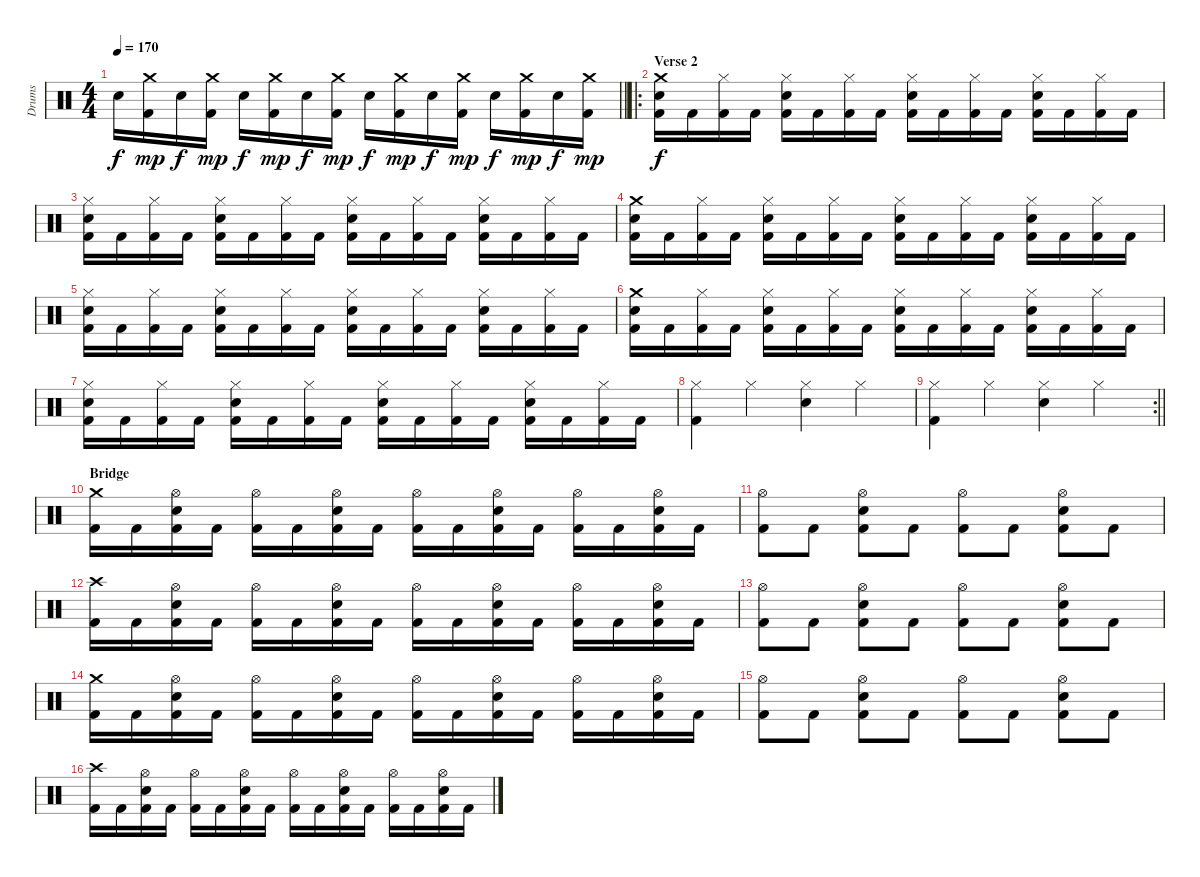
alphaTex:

\track ("Drums" "Drums") {instrument percussion}
\staff {score}
\articulation defaults
\ts (4 4)
\tempo 170
\clef neutral
\barLineRight lightlight
\ks c "Snare (hit) 2".16{dy f}
("Kick (hit) 2" "Crash medium (hit)").16{dy mp} "Snare (hit) 2".16{dy f} ("Kick (hit) 2" "Crash medium (hit)").16{dy mp} "Snare (hit) 2".16{dy f} ("Kick (hit) 2" "Crash medium (hit)").16{dy mp} "Snare (hit) 2".16{dy f} ("Kick (hit) 2" "Crash medium (hit)").16{dy mp} "Snare (hit) 2".16{dy f} ("Kick (hit) 2" "Crash medium (hit)").16{dy mp} "Snare (hit) 2".16{dy f} ("Kick (hit) 2" "Crash medium (hit)").16{dy mp} "Snare (hit) 2".16{dy f} ("Kick (hit) 2" "Crash medium (hit)").16{dy mp} "Snare (hit) 2".16{dy f} ("Kick (hit) 2" "Crash medium (hit)").16{dy mp} |
\ro
\section ("" "Verse 2")
("Kick (hit) 2" "Snare (hit) 2" "Crash medium (hit)").16{dy f} "Kick (hit) 2".16 ("Kick (hit) 2" "Hi-Hat (closed)").16 "Kick (hit) 2".16 ("Kick (hit) 2" "Snare (hit) 2" "Hi-Hat (closed)").16 "Kick (hit) 2".16 ("Kick (hit) 2" "Hi-Hat (closed)").16 "Kick (hit) 2".16 ("Kick (hit) 2" "Snare (hit) 2" "Hi-Hat (closed)").16 "Kick (hit) 2".16 ("Kick (hit) 2" "Hi-Hat (closed)").16 "Kick (hit) 2".16 ("Kick (hit) 2" "Snare (hit) 2" "Hi-Hat (closed)").16 "Kick (hit) 2".16 ("Kick (hit) 2" "Hi-Hat (closed)").16 "Kick (hit) 2".16 |
("Kick (hit) 2" "Snare (hit) 2" "Hi-Hat (closed)").16 "Kick (hit) 2".16 ("Kick (hit) 2" "Hi-Hat (closed)").16 "Kick (hit) 2".16 ("Kick (hit) 2" "Snare (hit) 2" "Hi-Hat (closed)").16 "Kick (hit) 2".16 ("Kick (hit) 2" "Hi-Hat (closed)").16 "Kick (hit) 2".16 ("Kick (hit) 2" "Snare (hit) 2" "Hi-Hat (closed)").16 "Kick (hit) 2".16 ("Kick (hit) 2" "Hi-Hat (closed)").16 "Kick (hit) 2".16 ("Kick (hit) 2" "Snare (hit) 2" "Hi-Hat (closed)").16 "Kick (hit) 2".16 ("Kick (hit) 2" "Hi-Hat (closed)").16 "Kick (hit) 2".16 |
("Kick (hit) 2" "Snare (hit) 2" "Crash medium (hit)").16 "Kick (hit) 2".16 ("Kick (hit) 2" "Hi-Hat (closed)").16 "Kick (hit) 2".16 ("Kick (hit) 2" "Snare (hit) 2" "Hi-Hat (closed)").16 "Kick (hit) 2".16 ("Kick (hit) 2" "Hi-Hat (closed)").16 "Kick (hit) 2".16 ("Kick (hit) 2" "Snare (hit) 2" "Hi-Hat (closed)").16 "Kick (hit) 2".16 ("Kick (hit) 2" "Hi-Hat (closed)").16 "Kick (hit) 2".16 ("Kick (hit) 2" "Snare (hit) 2" "Hi-Hat (closed)").16 "Kick (hit) 2".16 ("Kick (hit) 2" "Hi-Hat (closed)").16 "Kick (hit) 2".16 |
("Kick (hit) 2" "Snare (hit) 2" "Hi-Hat (closed)").16 "Kick (hit) 2".16 ("Kick (hit) 2" "Hi-Hat (closed)").16 "Kick (hit) 2".16 ("Kick (hit) 2" "Snare (hit) 2" "Hi-Hat (closed)").16 "Kick (hit) 2".16 ("Kick (hit) 2" "Hi-Hat (closed)").16 "Kick (hit) 2".16 ("Kick (hit) 2" "Snare (hit) 2" "Hi-Hat (closed)").16 "Kick (hit) 2".16 ("Kick (hit) 2" "Hi-Hat (closed)").16 "Kick (hit) 2".16 ("Kick (hit) 2" "Snare (hit) 2" "Hi-Hat (closed)").16 "Kick (hit) 2".16 ("Kick (hit) 2" "Hi-Hat (closed)").16 "Kick (hit) 2".16 |
("Kick (hit) 2" "Snare (hit) 2" "Crash medium (hit)").16 "Kick (hit) 2".16 ("Kick (hit) 2" "Hi-Hat (closed)").16 "Kick (hit) 2".16 ("Kick (hit) 2" "Snare (hit) 2" "Hi-Hat (closed)").16 "Kick (hit) 2".16 ("Kick (hit) 2" "Hi-Hat (closed)").16 "Kick (hit) 2".16 ("Kick (hit) 2" "Snare (hit) 2" "Hi-Hat (closed)").16 "Kick (hit) 2".16 ("Kick (hit) 2" "Hi-Hat (closed)").16 "Kick (hit) 2".16 ("Kick (hit) 2" "Snare (hit) 2" "Hi-Hat (closed)").16 "Kick (hit) 2".16 ("Kick (hit) 2" "Hi-Hat (closed)").16 "Kick (hit) 2".16 |
("Kick (hit) 2" "Snare (hit) 2" "Hi-Hat (closed)").16 "Kick (hit) 2".16 ("Kick (hit) 2" "Hi-Hat (closed)").16 "Kick (hit) 2".16 ("Kick (hit) 2" "Snare (hit) 2" "Hi-Hat (closed)").16 "Kick (hit) 2".16 ("Kick (hit) 2" "Hi-Hat (closed)").16 "Kick (hit) 2".16 ("Kick (hit) 2" "Snare (hit) 2" "Hi-Hat (closed)").16 "Kick (hit) 2".16 ("Kick (hit) 2" "Hi-Hat (closed)").16 "Kick (hit) 2".16 ("Kick (hit) 2" "Snare (hit) 2" "Hi-Hat (closed)").16 "Kick (hit) 2".16 ("Kick (hit) 2" "Hi-Hat (closed)").16 "Kick (hit) 2".16 |
("Kick (hit) 2" "Hi-Hat (closed)").4 "Hi-Hat (closed)".4 ("Snare (hit) 2" "Hi-Hat (closed)").4 "Hi-Hat (closed)".4 |
\rc 2
\barLineRight lightlight
("Kick (hit) 2" "Hi-Hat (closed)").4 "Hi-Hat (closed)".4 ("Snare (hit) 2" "Hi-Hat (closed)").4 "Hi-Hat (closed)".4 |
\section ("" "Bridge")
("Kick (hit) 2" "Crash medium (hit)").16 "Kick (hit) 2".16 ("Kick (hit) 2" "Snare (hit) 2" "Hi-Hat (open)").16 "Kick (hit) 2".16 ("Kick (hit) 2" "Hi-Hat (open)").16 "Kick (hit) 2".16 ("Kick (hit) 2" "Snare (hit) 2" "Hi-Hat (open)").16 "Kick (hit) 2".16 ("Kick (hit) 2" "Hi-Hat (open)").16 "Kick (hit) 2".16 ("Kick (hit) 2" "Snare (hit) 2" "Hi-Hat (open)").16 "Kick (hit) 2".16 ("Kick (hit) 2" "Hi-Hat (open)").16 "Kick (hit) 2".16 ("Kick (hit) 2" "Snare (hit) 2" "Hi-Hat (open)").16 "Kick (hit) 2".16 |
("Kick (hit) 2" "Hi-Hat (open)").8 "Kick (hit) 2".8 ("Kick (hit) 2" "Snare (hit) 2" "Hi-Hat (open)").8 "Kick (hit) 2".8 ("Kick (hit) 2" "Hi-Hat (open)").8 "Kick (hit) 2".8 ("Kick (hit) 2" "Snare (hit) 2" "Hi-Hat (open)").8 "Kick (hit) 2".8 |
("Kick (hit) 2" "Crash high (hit)").16 "Kick (hit) 2".16 ("Kick (hit) 2" "Snare (hit) 2" "Hi-Hat (open)").16 "Kick (hit) 2".16 ("Kick (hit) 2" "Hi-Hat (open)").16 "Kick (hit) 2".16 ("Kick (hit) 2" "Snare (hit) 2" "Hi-Hat (open)").16 "Kick (hit) 2".16 ("Kick (hit) 2" "Hi-Hat (open)").16 "Kick (hit) 2".16 ("Kick (hit) 2" "Snare (hit) 2" "Hi-Hat (open)").16 "Kick (hit) 2".16 ("Kick (hit) 2" "Hi-Hat (open)").16 "Kick (hit) 2".16 ("Kick (hit) 2" "Snare (hit) 2" "Hi-Hat (open)").16 "Kick (hit) 2".16 |
("Kick (hit) 2" "Hi-Hat (open)").8 "Kick (hit) 2".8 ("Kick (hit) 2" "Snare (hit) 2" "Hi-Hat (open)").8 "Kick (hit) 2".8 ("Kick (hit) 2" "Hi-Hat (open)").8 "Kick (hit) 2".8 ("Kick (hit) 2" "Snare (hit) 2" "Hi-Hat (open)").8 "Kick (hit) 2".8 |
("Kick (hit) 2" "Crash medium (hit)").16 "Kick (hit) 2".16 ("Kick (hit) 2" "Snare (hit) 2" "Hi-Hat (open)").16 "Kick (hit) 2".16 ("Kick (hit) 2" "Hi-Hat (open)").16 "Kick (hit) 2".16 ("Kick (hit) 2" "Snare (hit) 2" "Hi-Hat (open)").16 "Kick (hit) 2".16 ("Kick (hit) 2" "Hi-Hat (open)").16 "Kick (hit) 2".16 ("Kick (hit) 2" "Snare (hit) 2" "Hi-Hat (open)").16 "Kick (hit) 2".16 ("Kick (hit) 2" "Hi-Hat (open)").16 "Kick (hit) 2".16 ("Kick (hit) 2" "Snare (hit) 2" "Hi-Hat (open)").16 "Kick (hit) 2".16 |
("Kick (hit) 2" "Hi-Hat (open)").8 "Kick (hit) 2".8 ("Kick (hit) 2" "Snare (hit) 2" "Hi-Hat (open)").8 "Kick (hit) 2".8 ("Kick (hit) 2" "Hi-Hat (open)").8 "Kick (hit) 2".8 ("Kick (hit) 2" "Snare (hit) 2" "Hi-Hat (open)").8 "Kick (hit) 2".8 |
("Kick (hit) 2" "Crash high (hit)").16 "Kick (hit) 2".16 ("Kick (hit) 2" "Snare (hit) 2" "Hi-Hat (open)").16 "Kick (hit) 2".16 ("Kick (hit) 2" "Hi-Hat (open)").16 "Kick (hit) 2".16 ("Kick (hit) 2" "Snare (hit) 2" "Hi-Hat (open)").16 "Kick (hit) 2".16 ("Kick (hit) 2" "Hi-Hat (open)").16 "Kick (hit) 2".16 ("Kick (hit) 2" "Snare (hit) 2" "Hi-Hat (open)").16 "Kick (hit) 2".16 ("Kick (hit) 2" "Hi-Hat (open)").16 "Kick (hit) 2".16 ("Kick (hit) 2" "Snare (hit) 2" "Hi-Hat (open)").16 "Kick (hit) 2".16
